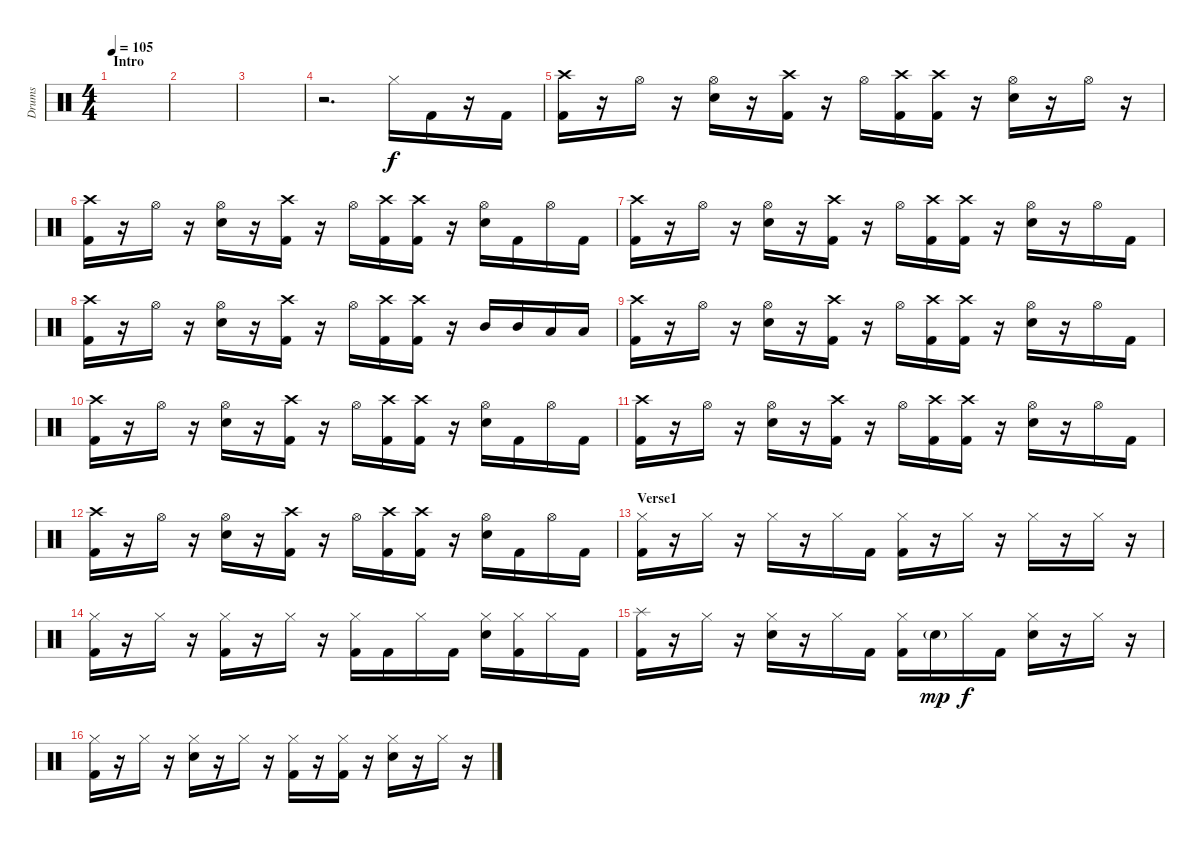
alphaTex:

\track ("Drums" "Drums") {instrument percussion}
\staff {score}
\articulation defaults
\ts (4 4)
\section ("" "Intro")
\tempo 105
\clef neutral
\ks c
|
|
|
r.2{d} "Hi-Hat (closed)".16 "Kick (hit) 2".16 r.16 "Kick (hit) 2".16 |
("Crash high (hit)" "Kick (hit) 2").16 r.16 "Hi-Hat (open)".16 r.16 ("Hi-Hat (open)" "Electric Snare (hit)").16 r.16 ("Crash high (hit)" "Kick (hit) 2").16 r.16 "Hi-Hat (open)".16 ("Crash high (hit)" "Kick (hit) 2").16 ("Crash high (hit)" "Kick (hit) 2").16 r.16 ("Hi-Hat (open)" "Electric Snare (hit)").16 r.16 "Hi-Hat (open)".16 r.16 |
("Crash high (hit)" "Kick (hit) 2").16 r.16 "Hi-Hat (open)".16 r.16 ("Hi-Hat (open)" "Electric Snare (hit)").16 r.16 ("Crash high (hit)" "Kick (hit) 2").16 r.16 "Hi-Hat (open)".16 ("Crash high (hit)" "Kick (hit) 2").16 ("Crash high (hit)" "Kick (hit) 2").16 r.16 ("Hi-Hat (open)" "Electric Snare (hit)").16 "Kick (hit) 2".16 "Hi-Hat (open)".16 "Kick (hit) 2".16 |
("Crash high (hit)" "Kick (hit) 2").16 r.16 "Hi-Hat (open)".16 r.16 ("Hi-Hat (open)" "Electric Snare (hit)").16 r.16 ("Crash high (hit)" "Kick (hit) 2").16 r.16 "Hi-Hat (open)".16 ("Crash high (hit)" "Kick (hit) 2").16 ("Crash high (hit)" "Kick (hit) 2").16 r.16 ("Hi-Hat (open)" "Electric Snare (hit)").16 r.16 "Hi-Hat (open)".16 "Kick (hit) 2".16 |
("Crash high (hit)" "Kick (hit) 2").16 r.16 "Hi-Hat (open)".16 r.16 ("Hi-Hat (open)" "Electric Snare (hit)").16 r.16 ("Crash high (hit)" "Kick (hit) 2").16 r.16 "Hi-Hat (open)".16 ("Crash high (hit)" "Kick (hit) 2").16 ("Crash high (hit)" "Kick (hit) 2").16 r.16 "Mid Tom (hit)".16 "Mid Tom (hit)".16 "Low Tom (hit)".16 "Low Tom (hit)".16 |
("Crash high (hit)" "Kick (hit) 2").16 r.16 "Hi-Hat (open)".16 r.16 ("Hi-Hat (open)" "Electric Snare (hit)").16 r.16 ("Crash high (hit)" "Kick (hit) 2").16 r.16 "Hi-Hat (open)".16 ("Crash high (hit)" "Kick (hit) 2").16 ("Crash high (hit)" "Kick (hit) 2").16 r.16 ("Hi-Hat (open)" "Electric Snare (hit)").16 r.16 "Hi-Hat (open)".16 "Kick (hit) 2".16 |
("Crash high (hit)" "Kick (hit) 2").16 r.16 "Hi-Hat (open)".16 r.16 ("Hi-Hat (open)" "Electric Snare (hit)").16 r.16 ("Crash high (hit)" "Kick (hit) 2").16 r.16 "Hi-Hat (open)".16 ("Crash high (hit)" "Kick (hit) 2").16 ("Crash high (hit)" "Kick (hit) 2").16 r.16 ("Hi-Hat (open)" "Electric Snare (hit)").16 "Kick (hit) 2".16 "Hi-Hat (open)".16 "Kick (hit) 2".16 |
("Crash high (hit)" "Kick (hit) 2").16 r.16 "Hi-Hat (open)".16 r.16 ("Hi-Hat (open)" "Electric Snare (hit)").16 r.16 ("Crash high (hit)" "Kick (hit) 2").16 r.16 "Hi-Hat (open)".16 ("Crash high (hit)" "Kick (hit) 2").16 ("Crash high (hit)" "Kick (hit) 2").16 r.16 ("Hi-Hat (open)" "Electric Snare (hit)").16 r.16 "Hi-Hat (open)".16 "Kick (hit) 2".16 |
("Crash high (hit)" "Kick (hit) 2").16 r.16 "Hi-Hat (open)".16 r.16 ("Hi-Hat (open)" "Electric Snare (hit)").16 r.16 ("Crash high (hit)" "Kick (hit) 2").16 r.16 "Hi-Hat (open)".16 ("Crash high (hit)" "Kick (hit) 2").16 ("Crash high (hit)" "Kick (hit) 2").16 r.16 ("Hi-Hat (open)" "Electric Snare (hit)").16 "Kick (hit) 2".16 "Hi-Hat (open)".16 "Kick (hit) 2".16 |
\section ("" "Verse1")
("Hi-Hat (closed)" "Kick (hit) 2").16 r.16 "Hi-Hat (closed)".16 r.16 "Hi-Hat (closed)".16 r.16 "Hi-Hat (closed)".16 "Kick (hit) 2".16 ("Hi-Hat (closed)" "Kick (hit) 2").16 r.16 "Hi-Hat (closed)".16 r.16 "Hi-Hat (closed)".16 r.16 "Hi-Hat (closed)".16 r.16 |
("Hi-Hat (closed)" "Kick (hit) 2").16 r.16 "Hi-Hat (closed)".16 r.16 ("Hi-Hat (closed)" "Kick (hit) 2").16 r.16 "Hi-Hat (closed)".16 r.16 ("Hi-Hat (closed)" "Kick (hit) 2").16 "Kick (hit) 2".16 "Hi-Hat (closed)".16 "Kick (hit) 2".16 ("Hi-Hat (closed)" "Electric Snare (hit)").16 ("Hi-Hat (closed)" "Kick (hit) 2").16 "Hi-Hat (closed)".16 "Kick (hit) 2".16 |
("Splash (hit)" "Kick (hit) 2").16 r.16 "Hi-Hat (closed)".16 r.16 ("Hi-Hat (closed)" "Electric Snare (hit)").16 r.16 "Hi-Hat (closed)".16 "Kick (hit) 2".16 ("Hi-Hat (closed)" "Kick (hit) 2").16 "Electric Snare (hit)"{g}.16{dy mp} "Hi-Hat (closed)".16{dy f} "Kick (hit) 2".16 ("Hi-Hat (closed)" "Electric Snare (hit)").16 r.16 "Hi-Hat (closed)".16 r.16 |
("Hi-Hat (closed)" "Kick (hit) 2").16 r.16 "Hi-Hat (closed)".16 r.16 ("Hi-Hat (closed)" "Electric Snare (hit)").16 r.16 "Hi-Hat (closed)".16 r.16 ("Hi-Hat (closed)" "Kick (hit) 2").16 r.16 ("Hi-Hat (closed)" "Kick (hit) 2").16 r.16 ("Hi-Hat (closed)" "Electric Snare (hit)").16 r.16 "Hi-Hat (closed)".16 r.16
